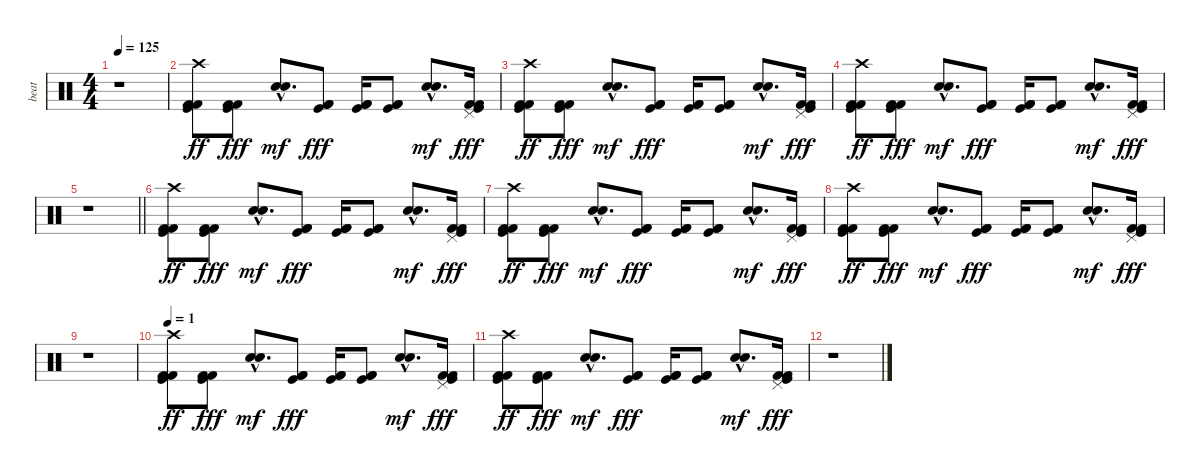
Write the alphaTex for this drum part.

\track ("beat" "beat") {instrument percussion}
\staff {score}
\articulation defaults
\ts (4 4)
\tempo 125
\clef neutral
\ks c
r.1{dy fff} |
("Kick (hit)" "Kick (hit) 2" "Kick (hit) 2" "Crash high (hit)").8{dy ff} ("Kick (hit)" "Kick (hit) 2" "Kick (hit) 2").8{dy fff} ("Snare (hit) 2"{hac} "Hand Clap (hit)"{hac}).8{d dy mf} ("Kick (hit)" "Kick (hit) 2" "Kick (hit) 2").8{dy fff} ("Kick (hit)" "Kick (hit) 2" "Kick (hit) 2").16 ("Kick (hit)" "Kick (hit) 2" "Kick (hit) 2").8 ("Snare (hit) 2"{hac} "Hand Clap (hit)"{hac}).8{d dy mf} ("Kick (hit)" "Kick (hit) 2" "Kick (hit) 2" "Pedal Hi-Hat (hit)").16{dy fff} |
("Kick (hit)" "Kick (hit) 2" "Kick (hit) 2" "Crash high (hit)").8{dy ff} ("Kick (hit)" "Kick (hit) 2" "Kick (hit) 2").8{dy fff} ("Snare (hit) 2"{hac} "Hand Clap (hit)"{hac}).8{d dy mf} ("Kick (hit)" "Kick (hit) 2" "Kick (hit) 2").8{dy fff} ("Kick (hit)" "Kick (hit) 2" "Kick (hit) 2").16 ("Kick (hit)" "Kick (hit) 2" "Kick (hit) 2").8 ("Snare (hit) 2"{hac} "Hand Clap (hit)"{hac}).8{d dy mf} ("Kick (hit)" "Kick (hit) 2" "Kick (hit) 2" "Pedal Hi-Hat (hit)").16{dy fff} |
("Kick (hit)" "Kick (hit) 2" "Kick (hit) 2" "Crash high (hit)").8{dy ff} ("Kick (hit)" "Kick (hit) 2" "Kick (hit) 2").8{dy fff} ("Snare (hit) 2"{hac} "Hand Clap (hit)"{hac}).8{d dy mf} ("Kick (hit)" "Kick (hit) 2" "Kick (hit) 2").8{dy fff} ("Kick (hit)" "Kick (hit) 2" "Kick (hit) 2").16 ("Kick (hit)" "Kick (hit) 2" "Kick (hit) 2").8 ("Snare (hit) 2"{hac} "Hand Clap (hit)"{hac}).8{d dy mf} ("Kick (hit)" "Kick (hit) 2" "Kick (hit) 2" "Pedal Hi-Hat (hit)").16{dy fff} |
\barLineRight lightlight
r.1 |
("Kick (hit)" "Kick (hit) 2" "Kick (hit) 2" "Crash high (hit)").8{dy ff} ("Kick (hit)" "Kick (hit) 2" "Kick (hit) 2").8{dy fff} ("Snare (hit) 2"{hac} "Hand Clap (hit)"{hac}).8{d dy mf} ("Kick (hit)" "Kick (hit) 2" "Kick (hit) 2").8{dy fff} ("Kick (hit)" "Kick (hit) 2" "Kick (hit) 2").16 ("Kick (hit)" "Kick (hit) 2" "Kick (hit) 2").8 ("Snare (hit) 2"{hac} "Hand Clap (hit)"{hac}).8{d dy mf} ("Kick (hit)" "Kick (hit) 2" "Kick (hit) 2" "Pedal Hi-Hat (hit)").16{dy fff} |
("Kick (hit)" "Kick (hit) 2" "Kick (hit) 2" "Crash high (hit)").8{dy ff} ("Kick (hit)" "Kick (hit) 2" "Kick (hit) 2").8{dy fff} ("Snare (hit) 2"{hac} "Hand Clap (hit)"{hac}).8{d dy mf} ("Kick (hit)" "Kick (hit) 2" "Kick (hit) 2").8{dy fff} ("Kick (hit)" "Kick (hit) 2" "Kick (hit) 2").16 ("Kick (hit)" "Kick (hit) 2" "Kick (hit) 2").8 ("Snare (hit) 2"{hac} "Hand Clap (hit)"{hac}).8{d dy mf} ("Kick (hit)" "Kick (hit) 2" "Kick (hit) 2" "Pedal Hi-Hat (hit)").16{dy fff} |
("Kick (hit)" "Kick (hit) 2" "Kick (hit) 2" "Crash high (hit)").8{dy ff} ("Kick (hit)" "Kick (hit) 2" "Kick (hit) 2").8{dy fff} ("Snare (hit) 2"{hac} "Hand Clap (hit)"{hac}).8{d dy mf} ("Kick (hit)" "Kick (hit) 2" "Kick (hit) 2").8{dy fff} ("Kick (hit)" "Kick (hit) 2" "Kick (hit) 2").16 ("Kick (hit)" "Kick (hit) 2" "Kick (hit) 2").8 ("Snare (hit) 2"{hac} "Hand Clap (hit)"{hac}).8{d dy mf} ("Kick (hit)" "Kick (hit) 2" "Kick (hit) 2" "Pedal Hi-Hat (hit)").16{dy fff} |
r.1 |
\tempo 1
("Kick (hit)" "Kick (hit) 2" "Kick (hit) 2" "Crash high (hit)").8{dy ff} ("Kick (hit)" "Kick (hit) 2" "Kick (hit) 2").8{dy fff} ("Snare (hit) 2"{hac} "Hand Clap (hit)"{hac}).8{d dy mf} ("Kick (hit)" "Kick (hit) 2" "Kick (hit) 2").8{dy fff} ("Kick (hit)" "Kick (hit) 2" "Kick (hit) 2").16 ("Kick (hit)" "Kick (hit) 2" "Kick (hit) 2").8 ("Snare (hit) 2"{hac} "Hand Clap (hit)"{hac}).8{d dy mf} ("Kick (hit)" "Kick (hit) 2" "Kick (hit) 2" "Pedal Hi-Hat (hit)").16{dy fff} |
("Kick (hit)" "Kick (hit) 2" "Kick (hit) 2" "Crash high (hit)").8{dy ff} ("Kick (hit)" "Kick (hit) 2" "Kick (hit) 2").8{dy fff} ("Snare (hit) 2"{hac} "Hand Clap (hit)"{hac}).8{d dy mf} ("Kick (hit)" "Kick (hit) 2" "Kick (hit) 2").8{dy fff} ("Kick (hit)" "Kick (hit) 2" "Kick (hit) 2").16 ("Kick (hit)" "Kick (hit) 2" "Kick (hit) 2").8 ("Snare (hit) 2"{hac} "Hand Clap (hit)"{hac}).8{d dy mf} ("Kick (hit)" "Kick (hit) 2" "Kick (hit) 2" "Pedal Hi-Hat (hit)").16{dy fff} |
r.1
